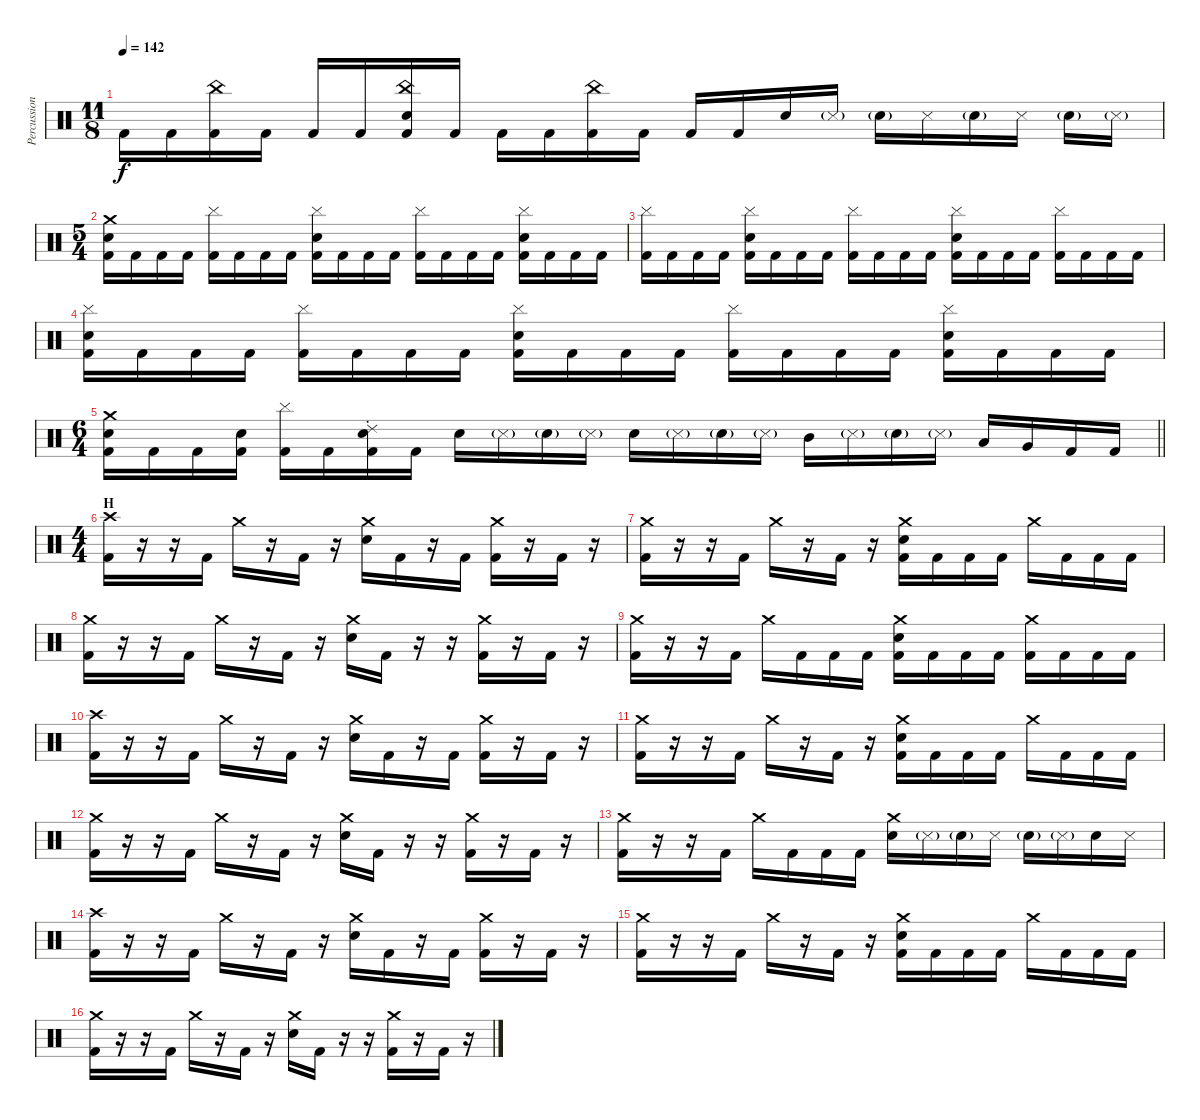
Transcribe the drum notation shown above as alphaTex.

\track ("Percussion" "Percussion") {instrument percussion}
\staff {score}
\articulation defaults
\ts (11 8)
\tempo 142
\clef neutral
\ks c "Kick (hit) 2".16{dy f} "Kick (hit) 2".16
("China (hit)" "Kick (hit) 2").16 "Kick (hit) 2".16 "Kick (hit) 2".16 "Kick (hit) 2".16 ("China (hit)" "Snare (hit) 2" "Kick (hit) 2").16 "Kick (hit) 2".16 "Kick (hit) 2".16 "Kick (hit) 2".16 ("China (hit)" "Kick (hit) 2").16 "Kick (hit) 2".16 "Kick (hit) 2".16 "Kick (hit) 2".16 "Snare (hit) 2".16 "Metronome (hit)"{g}.16 "Snare (hit) 2"{g}.16 "Metronome (hit)".16 "Snare (hit) 2"{g}.16 "Metronome (hit)".16 "Snare (hit) 2"{g}.16 "Metronome (hit)"{g}.16 |
\ts (5 4)
("Crash medium (hit)" "Snare (hit) 2" "Kick (hit) 2").16 "Kick (hit) 2".16 "Kick (hit) 2".16 "Kick (hit) 2".16 ("Cymbal (hit)" "Kick (hit) 2").16 "Kick (hit) 2".16 "Kick (hit) 2".16 "Kick (hit) 2".16 ("Cymbal (hit)" "Snare (hit) 2" "Kick (hit) 2").16 "Kick (hit) 2".16 "Kick (hit) 2".16 "Kick (hit) 2".16 ("Cymbal (hit)" "Kick (hit) 2").16 "Kick (hit) 2".16 "Kick (hit) 2".16 "Kick (hit) 2".16 ("Cymbal (hit)" "Snare (hit) 2" "Kick (hit) 2").16 "Kick (hit) 2".16 "Kick (hit) 2".16 "Kick (hit) 2".16 |
("Cymbal (hit)" "Kick (hit) 2").16 "Kick (hit) 2".16 "Kick (hit) 2".16 "Kick (hit) 2".16 ("Cymbal (hit)" "Snare (hit) 2" "Kick (hit) 2").16 "Kick (hit) 2".16 "Kick (hit) 2".16 "Kick (hit) 2".16 ("Cymbal (hit)" "Kick (hit) 2").16 "Kick (hit) 2".16 "Kick (hit) 2".16 "Kick (hit) 2".16 ("Cymbal (hit)" "Snare (hit) 2" "Kick (hit) 2").16 "Kick (hit) 2".16 "Kick (hit) 2".16 "Kick (hit) 2".16 ("Cymbal (hit)" "Kick (hit) 2").16 "Kick (hit) 2".16 "Kick (hit) 2".16 "Kick (hit) 2".16 |
("Cymbal (hit)" "Snare (hit) 2" "Kick (hit) 2").16 "Kick (hit) 2".16 "Kick (hit) 2".16 "Kick (hit) 2".16 ("Cymbal (hit)" "Kick (hit) 2").16 "Kick (hit) 2".16 "Kick (hit) 2".16 "Kick (hit) 2".16 ("Cymbal (hit)" "Snare (hit) 2" "Kick (hit) 2").16 "Kick (hit) 2".16 "Kick (hit) 2".16 "Kick (hit) 2".16 ("Cymbal (hit)" "Kick (hit) 2").16 "Kick (hit) 2".16 "Kick (hit) 2".16 "Kick (hit) 2".16 ("Cymbal (hit)" "Snare (hit) 2" "Kick (hit) 2").16 "Kick (hit) 2".16 "Kick (hit) 2".16 "Kick (hit) 2".16 |
\ts (6 4)
\barLineRight lightlight
("Crash medium (hit)" "Snare (hit) 2" "Kick (hit) 2").16 "Kick (hit) 2".16 "Kick (hit) 2".16 ("Snare (hit) 2" "Kick (hit) 2").16 ("Cymbal (hit)" "Kick (hit) 2").16 "Kick (hit) 2".16 ("Ride (choke) 2" "Snare (hit) 2" "Kick (hit) 2").16 "Kick (hit) 2".16 "Snare (hit) 2".16 "Metronome (hit)"{g}.16 "Snare (hit) 2"{g}.16 "Metronome (hit)"{g}.16 "Snare (hit) 2".16 "Metronome (hit)"{g}.16 "Snare (hit) 2"{g}.16 "Metronome (hit)"{g}.16 "Mid Tom (hit)".16 "Metronome (hit)"{g}.16 "Snare (hit) 2"{g}.16 "Metronome (hit)"{g}.16 "Low Tom (hit)".16 "Very Low Tom (hit)".16 "Kick (hit) 2".16 "Kick (hit) 2".16 |
\ts (4 4)
\section ("" "H")
("Crash high (hit)" "Kick (hit) 2").16 r.16 r.16 "Kick (hit) 2".16 "Crash medium (hit)".16 r.16 "Kick (hit) 2".16 r.16 ("Crash medium (hit)" "Snare (hit) 2").16 "Kick (hit) 2".16 r.16 "Kick (hit) 2".16 ("Crash medium (hit)" "Kick (hit) 2").16 r.16 "Kick (hit) 2".16 r.16 |
("Crash medium (hit)" "Kick (hit) 2").16 r.16 r.16 "Kick (hit) 2".16 "Crash medium (hit)".16 r.16 "Kick (hit) 2".16 r.16 ("Crash medium (hit)" "Snare (hit) 2" "Kick (hit) 2").16 "Kick (hit) 2".16 "Kick (hit) 2".16 "Kick (hit) 2".16 "Crash medium (hit)".16 "Kick (hit) 2".16 "Kick (hit) 2".16 "Kick (hit) 2".16 |
("Crash medium (hit)" "Kick (hit) 2").16 r.16 r.16 "Kick (hit) 2".16 "Crash medium (hit)".16 r.16 "Kick (hit) 2".16 r.16 ("Crash medium (hit)" "Snare (hit) 2").16 "Kick (hit) 2".16 r.16 r.16 ("Crash medium (hit)" "Kick (hit) 2").16 r.16 "Kick (hit) 2".16 r.16 |
("Crash medium (hit)" "Kick (hit) 2").16 r.16 r.16 "Kick (hit) 2".16 "Crash medium (hit)".16 "Kick (hit) 2".16 "Kick (hit) 2".16 "Kick (hit) 2".16 ("Crash medium (hit)" "Snare (hit) 2" "Kick (hit) 2").16 "Kick (hit) 2".16 "Kick (hit) 2".16 "Kick (hit) 2".16 ("Crash medium (hit)" "Kick (hit) 2").16 "Kick (hit) 2".16 "Kick (hit) 2".16 "Kick (hit) 2".16 |
("Crash high (hit)" "Kick (hit) 2").16 r.16 r.16 "Kick (hit) 2".16 "Crash medium (hit)".16 r.16 "Kick (hit) 2".16 r.16 ("Crash medium (hit)" "Snare (hit) 2").16 "Kick (hit) 2".16 r.16 "Kick (hit) 2".16 ("Crash medium (hit)" "Kick (hit) 2").16 r.16 "Kick (hit) 2".16 r.16 |
("Crash medium (hit)" "Kick (hit) 2").16 r.16 r.16 "Kick (hit) 2".16 "Crash medium (hit)".16 r.16 "Kick (hit) 2".16 r.16 ("Crash medium (hit)" "Snare (hit) 2" "Kick (hit) 2").16 "Kick (hit) 2".16 "Kick (hit) 2".16 "Kick (hit) 2".16 "Crash medium (hit)".16 "Kick (hit) 2".16 "Kick (hit) 2".16 "Kick (hit) 2".16 |
("Crash medium (hit)" "Kick (hit) 2").16 r.16 r.16 "Kick (hit) 2".16 "Crash medium (hit)".16 r.16 "Kick (hit) 2".16 r.16 ("Crash medium (hit)" "Snare (hit) 2").16 "Kick (hit) 2".16 r.16 r.16 ("Crash medium (hit)" "Kick (hit) 2").16 r.16 "Kick (hit) 2".16 r.16 |
("Crash medium (hit)" "Kick (hit) 2").16 r.16 r.16 "Kick (hit) 2".16 "Crash medium (hit)".16 "Kick (hit) 2".16 "Kick (hit) 2".16 "Kick (hit) 2".16 ("Crash medium (hit)" "Snare (hit) 2").16 "Metronome (hit)"{g}.16 "Snare (hit) 2"{g}.16 "Metronome (hit)".16 "Snare (hit) 2"{g}.16 "Metronome (hit)"{g}.16 "Snare (hit) 2".16 "Metronome (hit)".16 |
("Crash high (hit)" "Kick (hit) 2").16 r.16 r.16 "Kick (hit) 2".16 "Crash medium (hit)".16 r.16 "Kick (hit) 2".16 r.16 ("Crash medium (hit)" "Snare (hit) 2").16 "Kick (hit) 2".16 r.16 "Kick (hit) 2".16 ("Crash medium (hit)" "Kick (hit) 2").16 r.16 "Kick (hit) 2".16 r.16 |
("Crash medium (hit)" "Kick (hit) 2").16 r.16 r.16 "Kick (hit) 2".16 "Crash medium (hit)".16 r.16 "Kick (hit) 2".16 r.16 ("Crash medium (hit)" "Snare (hit) 2" "Kick (hit) 2").16 "Kick (hit) 2".16 "Kick (hit) 2".16 "Kick (hit) 2".16 "Crash medium (hit)".16 "Kick (hit) 2".16 "Kick (hit) 2".16 "Kick (hit) 2".16 |
("Crash medium (hit)" "Kick (hit) 2").16 r.16 r.16 "Kick (hit) 2".16 "Crash medium (hit)".16 r.16 "Kick (hit) 2".16 r.16 ("Crash medium (hit)" "Snare (hit) 2").16 "Kick (hit) 2".16 r.16 r.16 ("Crash medium (hit)" "Kick (hit) 2").16 r.16 "Kick (hit) 2".16 r.16
